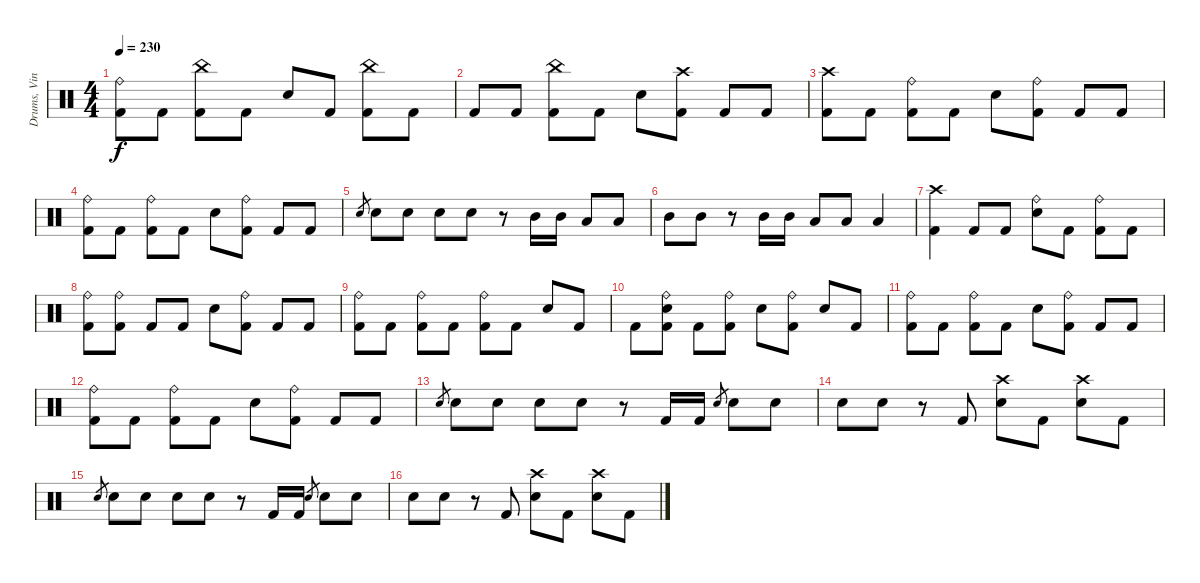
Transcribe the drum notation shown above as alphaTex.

\track ("Drums, Vinnie" "Drums, Vin") {instrument percussion}
\staff {score}
\articulation defaults
\ts (4 4)
\tempo 230
\clef neutral
\ks c
("Ride (bell)" "Kick (hit) 2").8{dy f} "Kick (hit) 2".8 ("China (hit)" "Kick (hit) 2").8 "Kick (hit) 2".8 "Electric Snare (hit)".8 "Kick (hit) 2".8 ("China (hit)" "Kick (hit) 2").8 "Kick (hit) 2".8 |
"Kick (hit) 2".8 "Kick (hit) 2".8 ("China (hit)" "Kick (hit) 2").8 "Kick (hit) 2".8 "Electric Snare (hit)".8 ("Crash high (hit)" "Kick (hit) 2").8 "Kick (hit) 2".8 "Kick (hit) 2".8 |
("Crash high (hit)" "Kick (hit) 2").8 "Kick (hit) 2".8 ("Ride (bell)" "Kick (hit) 2").8 "Kick (hit) 2".8 "Electric Snare (hit)".8 ("Ride (bell)" "Kick (hit) 2").8 "Kick (hit) 2".8 "Kick (hit) 2".8 |
("Ride (bell)" "Kick (hit) 2").8 "Kick (hit) 2".8 ("Ride (bell)" "Kick (hit) 2").8 "Kick (hit) 2".8 "Electric Snare (hit)".8 ("Ride (bell)" "Kick (hit) 2").8 "Kick (hit) 2".8 "Kick (hit) 2".8 |
"Electric Snare (hit)".8{gr} "Electric Snare (hit)".8 "Electric Snare (hit)".8 "Electric Snare (hit)".8 "Electric Snare (hit)".8 r.8 "Mid Tom (hit)".16 "Mid Tom (hit)".16 "Low Tom (hit)".8 "Low Tom (hit)".8 |
"Mid Tom (hit)".8 "Mid Tom (hit)".8 r.8 "Mid Tom (hit)".16 "Mid Tom (hit)".16 "Low Tom (hit)".8 "Low Tom (hit)".8 "Low Tom (hit)".4 |
("Crash high (hit)" "Kick (hit) 2").4 "Kick (hit) 2".8 "Kick (hit) 2".8 ("Ride (bell)" "Electric Snare (hit)").8 "Kick (hit) 2".8 ("Ride (bell)" "Kick (hit) 2").8 "Kick (hit) 2".8 |
("Ride (bell)" "Kick (hit) 2").8 ("Ride (bell)" "Kick (hit) 2").8 "Kick (hit) 2".8 "Kick (hit) 2".8 "Electric Snare (hit)".8 ("Ride (bell)" "Kick (hit) 2").8 "Kick (hit) 2".8 "Kick (hit) 2".8 |
("Ride (bell)" "Kick (hit) 2").8 "Kick (hit) 2".8 ("Ride (bell)" "Kick (hit) 2").8 "Kick (hit) 2".8 ("Ride (bell)" "Kick (hit) 2").8 "Kick (hit) 2".8 "Electric Snare (hit)".8 "Kick (hit) 2".8 |
"Kick (hit) 2".8 ("Ride (bell)" "Electric Snare (hit)" "Kick (hit) 2").8 "Kick (hit) 2".8 ("Ride (bell)" "Kick (hit) 2").8 "Electric Snare (hit)".8 ("Ride (bell)" "Kick (hit) 2").8 "Electric Snare (hit)".8 "Kick (hit) 2".8 |
("Ride (bell)" "Kick (hit) 2").8 "Kick (hit) 2".8 ("Ride (bell)" "Kick (hit) 2").8 "Kick (hit) 2".8 "Electric Snare (hit)".8 ("Ride (bell)" "Kick (hit) 2").8 "Kick (hit) 2".8 "Kick (hit) 2".8 |
("Ride (bell)" "Kick (hit) 2").8 "Kick (hit) 2".8 ("Ride (bell)" "Kick (hit) 2").8 "Kick (hit) 2".8 "Electric Snare (hit)".8 ("Ride (bell)" "Kick (hit) 2").8 "Kick (hit) 2".8 "Kick (hit) 2".8 |
"Electric Snare (hit)".8{gr} "Electric Snare (hit)".8 "Electric Snare (hit)".8 "Electric Snare (hit)".8 "Electric Snare (hit)".8 r.8 "Kick (hit) 2".16 "Kick (hit) 2".16 "Electric Snare (hit)".8{gr} "Electric Snare (hit)".8 "Electric Snare (hit)".8 |
"Electric Snare (hit)".8 "Electric Snare (hit)".8 r.8 "Kick (hit) 2".8 ("Crash high (hit)" "Electric Snare (hit)").8 "Kick (hit) 2".8 ("Crash high (hit)" "Electric Snare (hit)").8 "Kick (hit) 2".8 |
"Electric Snare (hit)".8{gr} "Electric Snare (hit)".8 "Electric Snare (hit)".8 "Electric Snare (hit)".8 "Electric Snare (hit)".8 r.8 "Kick (hit) 2".16 "Kick (hit) 2".16 "Electric Snare (hit)".8{gr} "Electric Snare (hit)".8 "Electric Snare (hit)".8 |
"Electric Snare (hit)".8 "Electric Snare (hit)".8 r.8 "Kick (hit) 2".8 ("Crash high (hit)" "Electric Snare (hit)").8 "Kick (hit) 2".8 ("Crash high (hit)" "Electric Snare (hit)").8 "Kick (hit) 2".8
